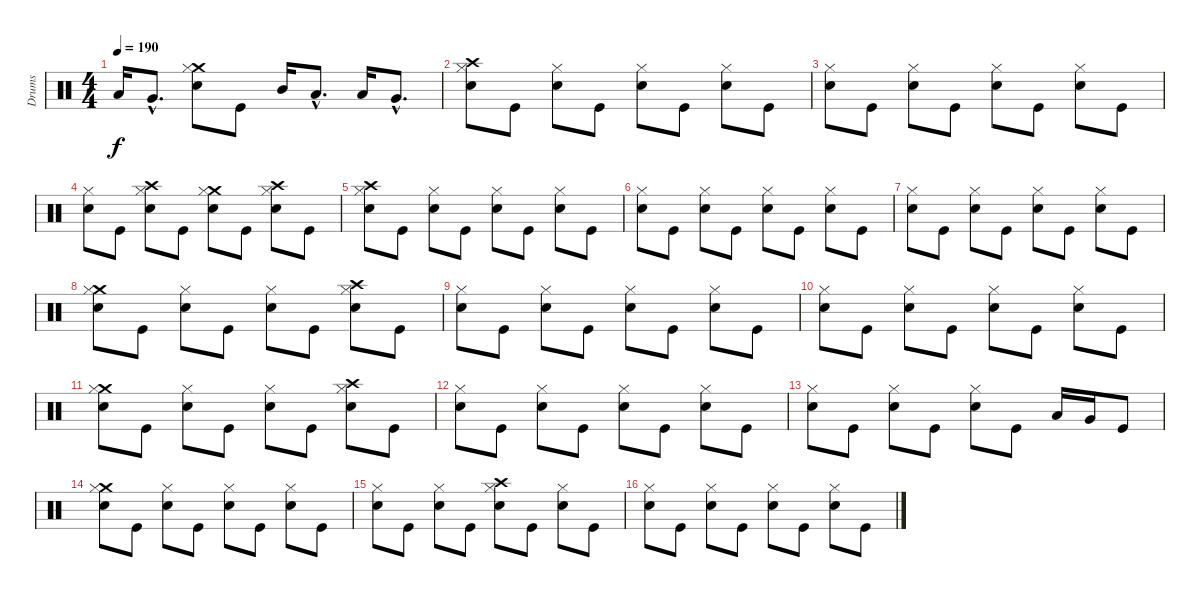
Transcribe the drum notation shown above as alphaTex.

\track ("Drums" "Drums") {instrument percussion}
\staff {score}
\articulation defaults
\ts (4 4)
\tempo 190
\clef neutral
\ks c "Low Tom (hit)".16{dy f} "Very Low Tom (hit)"{hac}.8{d}
("Crash medium (hit)" "Hi-Hat (closed)" "Snare (hit) 2").8 "Kick (hit)".8 "Mid Tom (hit)".16 "Low Tom (hit)"{hac}.8{d} "Low Tom (hit)".16 "Very Low Tom (hit)"{hac}.8{d} |
("Crash high (hit)" "Hi-Hat (closed)" "Snare (hit) 2").8 "Kick (hit)".8 ("Hi-Hat (closed)" "Snare (hit) 2").8 "Kick (hit)".8 ("Hi-Hat (closed)" "Snare (hit) 2").8 "Kick (hit)".8 ("Hi-Hat (closed)" "Snare (hit) 2").8 "Kick (hit)".8 |
("Hi-Hat (closed)" "Snare (hit) 2").8 "Kick (hit)".8 ("Hi-Hat (closed)" "Snare (hit) 2").8 "Kick (hit)".8 ("Hi-Hat (closed)" "Snare (hit) 2").8 "Kick (hit)".8 ("Hi-Hat (closed)" "Snare (hit) 2").8 "Kick (hit)".8 |
("Hi-Hat (closed)" "Snare (hit) 2").8 "Kick (hit)".8 ("Crash high (hit)" "Hi-Hat (closed)" "Snare (hit) 2").8 "Kick (hit)".8 ("Crash medium (hit)" "Hi-Hat (closed)" "Snare (hit) 2").8 "Kick (hit)".8 ("Crash high (hit)" "Hi-Hat (closed)" "Snare (hit) 2").8 "Kick (hit)".8 |
("Crash high (hit)" "Hi-Hat (closed)" "Snare (hit) 2").8 "Kick (hit)".8 ("Hi-Hat (closed)" "Snare (hit) 2").8 "Kick (hit)".8 ("Hi-Hat (closed)" "Snare (hit) 2").8 "Kick (hit)".8 ("Hi-Hat (closed)" "Snare (hit) 2").8 "Kick (hit)".8 |
("Hi-Hat (closed)" "Snare (hit) 2").8 "Kick (hit)".8 ("Hi-Hat (closed)" "Snare (hit) 2").8 "Kick (hit)".8 ("Hi-Hat (closed)" "Snare (hit) 2").8 "Kick (hit)".8 ("Hi-Hat (closed)" "Snare (hit) 2").8 "Kick (hit)".8 |
("Hi-Hat (closed)" "Snare (hit) 2").8 "Kick (hit)".8 ("Hi-Hat (closed)" "Snare (hit) 2").8 "Kick (hit)".8 ("Hi-Hat (closed)" "Snare (hit) 2").8 "Kick (hit)".8 ("Hi-Hat (closed)" "Snare (hit) 2").8 "Kick (hit)".8 |
("Crash medium (hit)" "Hi-Hat (closed)" "Snare (hit) 2").8 "Kick (hit)".8 ("Hi-Hat (closed)" "Snare (hit) 2").8 "Kick (hit)".8 ("Hi-Hat (closed)" "Snare (hit) 2").8 "Kick (hit)".8 ("Crash high (hit)" "Hi-Hat (closed)" "Snare (hit) 2").8 "Kick (hit)".8 |
("Hi-Hat (closed)" "Snare (hit) 2").8 "Kick (hit)".8 ("Hi-Hat (closed)" "Snare (hit) 2").8 "Kick (hit)".8 ("Hi-Hat (closed)" "Snare (hit) 2").8 "Kick (hit)".8 ("Hi-Hat (closed)" "Snare (hit) 2").8 "Kick (hit)".8 |
("Hi-Hat (closed)" "Snare (hit) 2").8 "Kick (hit)".8 ("Hi-Hat (closed)" "Snare (hit) 2").8 "Kick (hit)".8 ("Hi-Hat (closed)" "Snare (hit) 2").8 "Kick (hit)".8 ("Hi-Hat (closed)" "Snare (hit) 2").8 "Kick (hit)".8 |
("Crash medium (hit)" "Hi-Hat (closed)" "Snare (hit) 2").8 "Kick (hit)".8 ("Hi-Hat (closed)" "Snare (hit) 2").8 "Kick (hit)".8 ("Hi-Hat (closed)" "Snare (hit) 2").8 "Kick (hit)".8 ("Crash high (hit)" "Hi-Hat (closed)" "Snare (hit) 2").8 "Kick (hit)".8 |
("Hi-Hat (closed)" "Snare (hit) 2").8 "Kick (hit)".8 ("Hi-Hat (closed)" "Snare (hit) 2").8 "Kick (hit)".8 ("Hi-Hat (closed)" "Snare (hit) 2").8 "Kick (hit)".8 ("Hi-Hat (closed)" "Snare (hit) 2").8 "Kick (hit)".8 |
("Hi-Hat (closed)" "Snare (hit) 2").8 "Kick (hit)".8 ("Hi-Hat (closed)" "Snare (hit) 2").8 "Kick (hit)".8 ("Hi-Hat (closed)" "Snare (hit) 2").8 "Kick (hit)".8 "Low Tom (hit)".16 "Very Low Tom (hit)".16 "Kick (hit)".8 |
("Crash medium (hit)" "Hi-Hat (closed)" "Snare (hit) 2").8 "Kick (hit)".8 ("Hi-Hat (closed)" "Snare (hit) 2").8 "Kick (hit)".8 ("Hi-Hat (closed)" "Snare (hit) 2").8 "Kick (hit)".8 ("Hi-Hat (closed)" "Snare (hit) 2").8 "Kick (hit)".8 |
("Hi-Hat (closed)" "Snare (hit) 2").8 "Kick (hit)".8 ("Hi-Hat (closed)" "Snare (hit) 2").8 "Kick (hit)".8 ("Crash high (hit)" "Hi-Hat (closed)" "Snare (hit) 2").8 "Kick (hit)".8 ("Hi-Hat (closed)" "Snare (hit) 2").8 "Kick (hit)".8 |
("Hi-Hat (closed)" "Snare (hit) 2").8 "Kick (hit)".8 ("Hi-Hat (closed)" "Snare (hit) 2").8 "Kick (hit)".8 ("Hi-Hat (closed)" "Snare (hit) 2").8 "Kick (hit)".8 ("Hi-Hat (closed)" "Snare (hit) 2").8 "Kick (hit)".8
